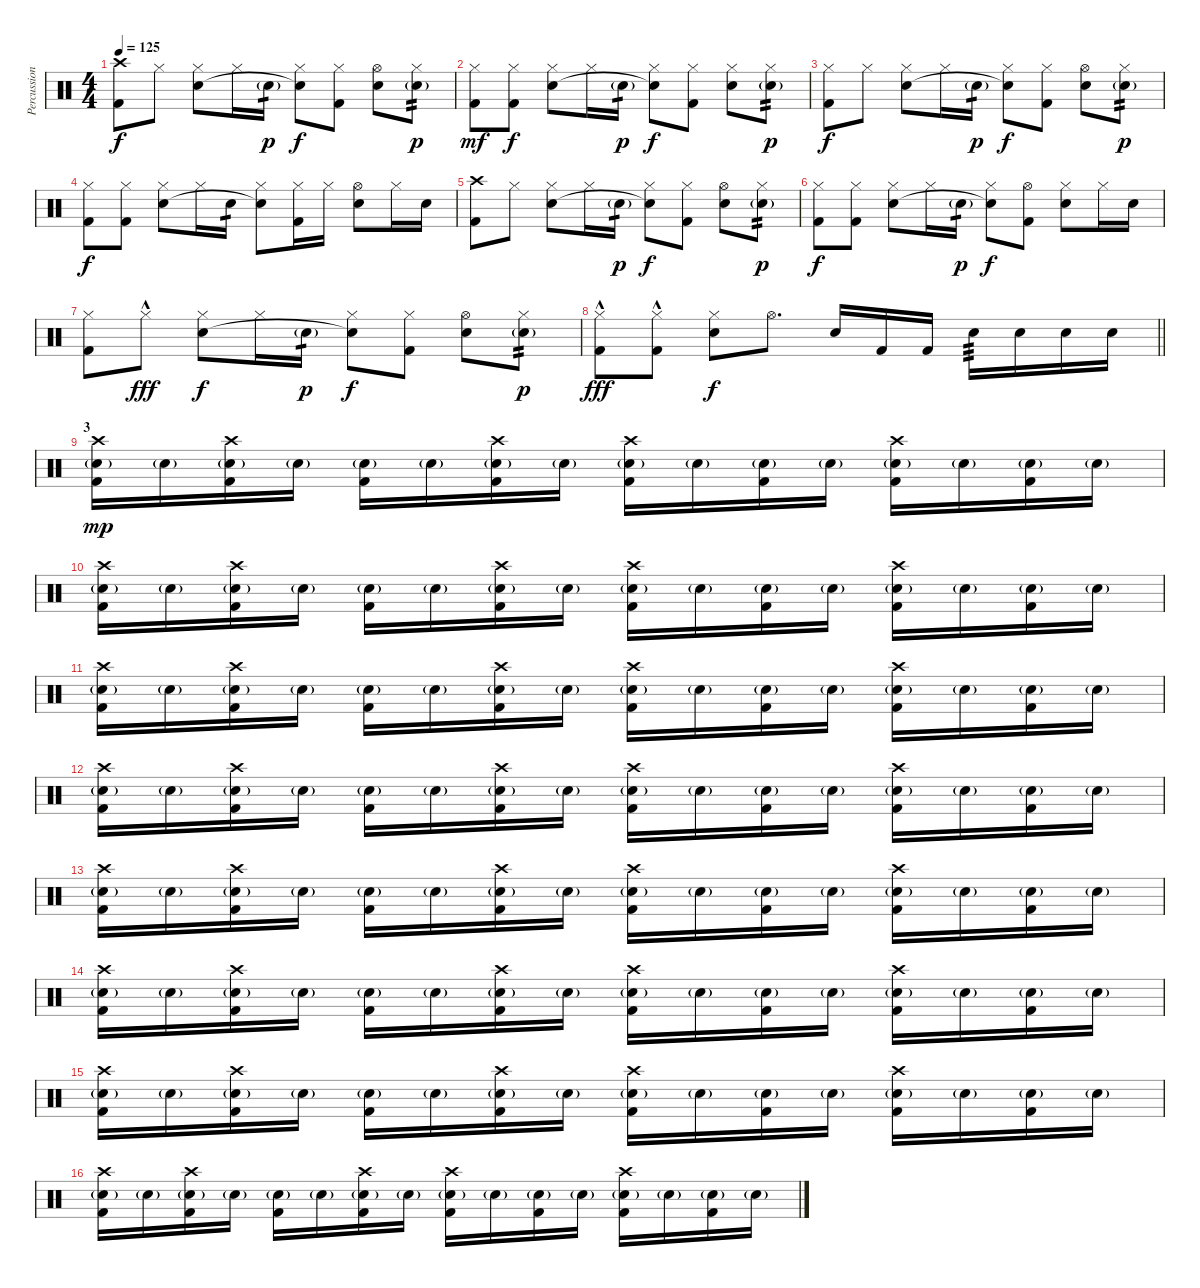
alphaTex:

\track ("Percussion" "Percussion") {instrument percussion}
\staff {score}
\articulation defaults
\ts (4 4)
\tempo 125
\clef neutral
\ks c
("Crash high (hit)" "Kick (hit) 2").8{dy f} "Hi-Hat (closed)".8 ("Hi-Hat (closed)" "Snare (hit) 2").8 "Hi-Hat (closed)".16 "Snare (hit) 2"{g}.16{tp 1 dy p} ("Hi-Hat (closed)" "Snare (hit) 2"{t}).8{dy f} ("Hi-Hat (closed)" "Kick (hit) 2").8 ("Hi-Hat (open)" "Snare (hit) 2").8 ("Hi-Hat (closed)" "Snare (hit) 2"{g}).8{tp 2 dy p} |
("Hi-Hat (closed)" "Kick (hit) 2").8{dy mf} ("Hi-Hat (closed)" "Kick (hit) 2").8{dy f} ("Hi-Hat (closed)" "Snare (hit) 2").8 "Hi-Hat (closed)".16 "Snare (hit) 2"{g}.16{tp 1 dy p} ("Hi-Hat (closed)" "Snare (hit) 2"{t}).8{dy f} ("Hi-Hat (closed)" "Kick (hit) 2").8 ("Hi-Hat (closed)" "Snare (hit) 2").8 ("Hi-Hat (closed)" "Snare (hit) 2"{g}).8{tp 2 dy p} |
("Hi-Hat (closed)" "Kick (hit) 2").8{dy f} "Hi-Hat (closed)".8 ("Hi-Hat (closed)" "Snare (hit) 2").8 "Hi-Hat (closed)".16 "Snare (hit) 2"{g}.16{tp 1 dy p} ("Hi-Hat (closed)" "Snare (hit) 2"{t}).8{dy f} ("Hi-Hat (closed)" "Kick (hit) 2").8 ("Hi-Hat (open)" "Snare (hit) 2").8 ("Hi-Hat (closed)" "Snare (hit) 2"{g}).8{tp 2 dy p} |
("Hi-Hat (closed)" "Kick (hit) 2").8{dy f} ("Hi-Hat (closed)" "Kick (hit) 2").8 ("Hi-Hat (closed)" "Snare (hit) 2").8 "Hi-Hat (closed)".16 "Snare (hit) 2".16{tp 1} ("Hi-Hat (closed)" "Snare (hit)"{t}).8 ("Hi-Hat (closed)" "Kick (hit) 2").16 "Hi-Hat (closed)".16 ("Hi-Hat (open)" "Snare (hit) 2").8 "Hi-Hat (closed)".16 "Snare (hit) 2".16 |
("Crash high (hit)" "Kick (hit) 2").8 "Hi-Hat (closed)".8 ("Hi-Hat (closed)" "Snare (hit) 2").8 "Hi-Hat (closed)".16 "Snare (hit) 2"{g}.16{tp 1 dy p} ("Hi-Hat (closed)" "Snare (hit) 2"{t}).8{dy f} ("Hi-Hat (closed)" "Kick (hit) 2").8 ("Hi-Hat (open)" "Snare (hit) 2").8 ("Hi-Hat (closed)" "Snare (hit) 2"{g}).8{tp 2 dy p} |
("Hi-Hat (closed)" "Kick (hit) 2").8{dy f} ("Hi-Hat (closed)" "Kick (hit) 2").8 ("Hi-Hat (closed)" "Snare (hit) 2").8 "Hi-Hat (closed)".16 "Snare (hit) 2"{g}.16{tp 1 dy p} ("Hi-Hat (closed)" "Snare (hit) 2"{t}).8{dy f} ("Hi-Hat (open)" "Kick (hit) 2").8 ("Hi-Hat (closed)" "Snare (hit) 2").8 "Hi-Hat (closed)".16 "Snare (hit) 2".16 |
("Hi-Hat (closed)" "Kick (hit) 2").8 "Hi-Hat (closed)"{hac}.8{dy fff} ("Hi-Hat (closed)" "Snare (hit) 2").8{dy f} "Hi-Hat (closed)".16 "Snare (hit) 2"{g}.16{tp 1 dy p} ("Hi-Hat (closed)" "Snare (hit) 2"{t}).8{dy f} ("Hi-Hat (closed)" "Kick (hit) 2").8 ("Hi-Hat (open)" "Snare (hit) 2").8 ("Hi-Hat (closed)" "Snare (hit) 2"{g}).8{tp 2 dy p} |
\barLineRight lightlight
("Hi-Hat (closed)"{hac} "Kick (hit) 2").8{dy fff} ("Hi-Hat (closed)"{hac} "Kick (hit) 2").8 ("Hi-Hat (closed)" "Snare (hit) 2").8{dy f} "Hi-Hat (open)".8{d} "Snare (hit) 2".16 "Kick (hit) 2".16 "Kick (hit) 2".16 "Snare (hit) 2".16{tp 3} "Snare (hit) 2".16 "Snare (hit) 2".16 "Snare (hit) 2".16 |
\section ("" "3")
("Crash high (hit)" "Snare (hit) 2"{g} "Kick (hit) 2").16{dy mp} "Snare (hit) 2"{g}.16 ("Crash high (hit)" "Snare (hit) 2"{g} "Kick (hit) 2").16 "Snare (hit) 2"{g}.16 ("Snare (hit) 2"{g} "Kick (hit) 2").16 "Snare (hit) 2"{g}.16 ("Crash high (hit)" "Snare (hit) 2"{g} "Kick (hit) 2").16 "Snare (hit) 2"{g}.16 ("Crash high (hit)" "Snare (hit) 2"{g} "Kick (hit) 2").16 "Snare (hit) 2"{g}.16 ("Snare (hit) 2"{g} "Kick (hit) 2").16 "Snare (hit) 2"{g}.16 ("Crash high (hit)" "Snare (hit) 2"{g} "Kick (hit) 2").16 "Snare (hit) 2"{g}.16 ("Snare (hit) 2"{g} "Kick (hit) 2").16 "Snare (hit) 2"{g}.16 |
("Crash high (hit)" "Snare (hit) 2"{g} "Kick (hit) 2").16 "Snare (hit) 2"{g}.16 ("Crash high (hit)" "Snare (hit) 2"{g} "Kick (hit) 2").16 "Snare (hit) 2"{g}.16 ("Snare (hit) 2"{g} "Kick (hit) 2").16 "Snare (hit) 2"{g}.16 ("Crash high (hit)" "Snare (hit) 2"{g} "Kick (hit) 2").16 "Snare (hit) 2"{g}.16 ("Crash high (hit)" "Snare (hit) 2"{g} "Kick (hit) 2").16 "Snare (hit) 2"{g}.16 ("Snare (hit) 2"{g} "Kick (hit) 2").16 "Snare (hit) 2"{g}.16 ("Crash high (hit)" "Snare (hit) 2"{g} "Kick (hit) 2").16 "Snare (hit) 2"{g}.16 ("Snare (hit) 2"{g} "Kick (hit) 2").16 "Snare (hit) 2"{g}.16 |
("Crash high (hit)" "Snare (hit) 2"{g} "Kick (hit) 2").16 "Snare (hit) 2"{g}.16 ("Crash high (hit)" "Snare (hit) 2"{g} "Kick (hit) 2").16 "Snare (hit) 2"{g}.16 ("Snare (hit) 2"{g} "Kick (hit) 2").16 "Snare (hit) 2"{g}.16 ("Crash high (hit)" "Snare (hit) 2"{g} "Kick (hit) 2").16 "Snare (hit) 2"{g}.16 ("Crash high (hit)" "Snare (hit) 2"{g} "Kick (hit) 2").16 "Snare (hit) 2"{g}.16 ("Snare (hit) 2"{g} "Kick (hit) 2").16 "Snare (hit) 2"{g}.16 ("Crash high (hit)" "Snare (hit) 2"{g} "Kick (hit) 2").16 "Snare (hit) 2"{g}.16 ("Snare (hit) 2"{g} "Kick (hit) 2").16 "Snare (hit) 2"{g}.16 |
("Crash high (hit)" "Snare (hit) 2"{g} "Kick (hit) 2").16 "Snare (hit) 2"{g}.16 ("Crash high (hit)" "Snare (hit) 2"{g} "Kick (hit) 2").16 "Snare (hit) 2"{g}.16 ("Snare (hit) 2"{g} "Kick (hit) 2").16 "Snare (hit) 2"{g}.16 ("Crash high (hit)" "Snare (hit) 2"{g} "Kick (hit) 2").16 "Snare (hit) 2"{g}.16 ("Crash high (hit)" "Snare (hit) 2"{g} "Kick (hit) 2").16 "Snare (hit) 2"{g}.16 ("Snare (hit) 2"{g} "Kick (hit) 2").16 "Snare (hit) 2"{g}.16 ("Crash high (hit)" "Snare (hit) 2"{g} "Kick (hit) 2").16 "Snare (hit) 2"{g}.16 ("Snare (hit) 2"{g} "Kick (hit) 2").16 "Snare (hit) 2"{g}.16 |
("Crash high (hit)" "Snare (hit) 2"{g} "Kick (hit) 2").16 "Snare (hit) 2"{g}.16 ("Crash high (hit)" "Snare (hit) 2"{g} "Kick (hit) 2").16 "Snare (hit) 2"{g}.16 ("Snare (hit) 2"{g} "Kick (hit) 2").16 "Snare (hit) 2"{g}.16 ("Crash high (hit)" "Snare (hit) 2"{g} "Kick (hit) 2").16 "Snare (hit) 2"{g}.16 ("Crash high (hit)" "Snare (hit) 2"{g} "Kick (hit) 2").16 "Snare (hit) 2"{g}.16 ("Snare (hit) 2"{g} "Kick (hit) 2").16 "Snare (hit) 2"{g}.16 ("Crash high (hit)" "Snare (hit) 2"{g} "Kick (hit) 2").16 "Snare (hit) 2"{g}.16 ("Snare (hit) 2"{g} "Kick (hit) 2").16 "Snare (hit) 2"{g}.16 |
("Crash high (hit)" "Snare (hit) 2"{g} "Kick (hit) 2").16 "Snare (hit) 2"{g}.16 ("Crash high (hit)" "Snare (hit) 2"{g} "Kick (hit) 2").16 "Snare (hit) 2"{g}.16 ("Snare (hit) 2"{g} "Kick (hit) 2").16 "Snare (hit) 2"{g}.16 ("Crash high (hit)" "Snare (hit) 2"{g} "Kick (hit) 2").16 "Snare (hit) 2"{g}.16 ("Crash high (hit)" "Snare (hit) 2"{g} "Kick (hit) 2").16 "Snare (hit) 2"{g}.16 ("Snare (hit) 2"{g} "Kick (hit) 2").16 "Snare (hit) 2"{g}.16 ("Crash high (hit)" "Snare (hit) 2"{g} "Kick (hit) 2").16 "Snare (hit) 2"{g}.16 ("Snare (hit) 2"{g} "Kick (hit) 2").16 "Snare (hit) 2"{g}.16 |
("Crash high (hit)" "Snare (hit) 2"{g} "Kick (hit) 2").16 "Snare (hit) 2"{g}.16 ("Crash high (hit)" "Snare (hit) 2"{g} "Kick (hit) 2").16 "Snare (hit) 2"{g}.16 ("Snare (hit) 2"{g} "Kick (hit) 2").16 "Snare (hit) 2"{g}.16 ("Crash high (hit)" "Snare (hit) 2"{g} "Kick (hit) 2").16 "Snare (hit) 2"{g}.16 ("Crash high (hit)" "Snare (hit) 2"{g} "Kick (hit) 2").16 "Snare (hit) 2"{g}.16 ("Snare (hit) 2"{g} "Kick (hit) 2").16 "Snare (hit) 2"{g}.16 ("Crash high (hit)" "Snare (hit) 2"{g} "Kick (hit) 2").16 "Snare (hit) 2"{g}.16 ("Snare (hit) 2"{g} "Kick (hit) 2").16 "Snare (hit) 2"{g}.16 |
("Crash high (hit)" "Snare (hit) 2"{g} "Kick (hit) 2").16 "Snare (hit) 2"{g}.16 ("Crash high (hit)" "Snare (hit) 2"{g} "Kick (hit) 2").16 "Snare (hit) 2"{g}.16 ("Snare (hit) 2"{g} "Kick (hit) 2").16 "Snare (hit) 2"{g}.16 ("Crash high (hit)" "Snare (hit) 2"{g} "Kick (hit) 2").16 "Snare (hit) 2"{g}.16 ("Crash high (hit)" "Snare (hit) 2"{g} "Kick (hit) 2").16 "Snare (hit) 2"{g}.16 ("Snare (hit) 2"{g} "Kick (hit) 2").16 "Snare (hit) 2"{g}.16 ("Crash high (hit)" "Snare (hit) 2"{g} "Kick (hit) 2").16 "Snare (hit) 2"{g}.16 ("Snare (hit) 2"{g} "Kick (hit) 2").16 "Snare (hit) 2"{g}.16
